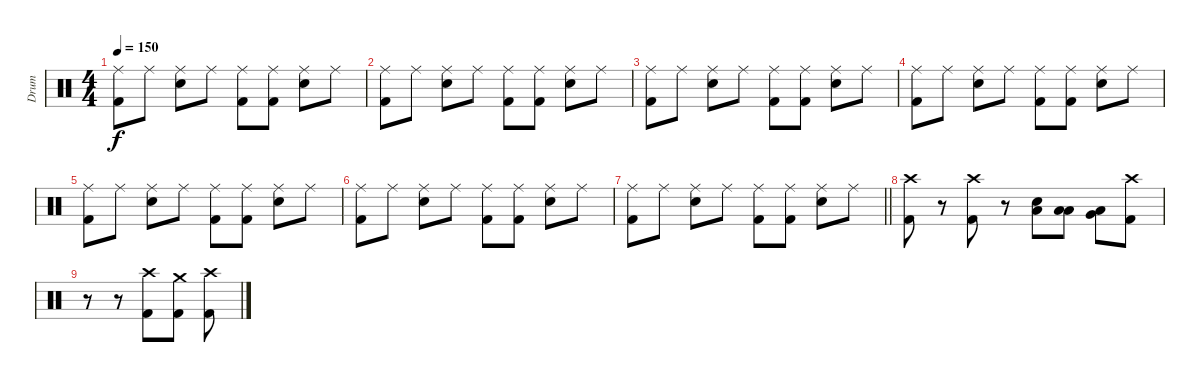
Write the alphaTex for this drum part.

\track ("Drum" "Drum") {instrument percussion}
\staff {score}
\articulation defaults
\ts (4 4)
\tempo 150
\clef neutral
\ks c
("Ride (middle)" "Kick (hit) 2").8{dy f} "Ride (middle)".8 ("Ride (middle)" "Electric Snare (hit)").8 "Ride (middle)".8 ("Ride (middle)" "Kick (hit) 2").8 ("Ride (middle)" "Kick (hit) 2").8 ("Ride (middle)" "Electric Snare (hit)").8 "Ride (middle)".8 |
("Ride (middle)" "Kick (hit) 2").8 "Ride (middle)".8 ("Ride (middle)" "Electric Snare (hit)").8 "Ride (middle)".8 ("Ride (middle)" "Kick (hit) 2").8 ("Ride (middle)" "Kick (hit) 2").8 ("Ride (middle)" "Electric Snare (hit)").8 "Ride (middle)".8 |
("Ride (middle)" "Kick (hit) 2").8 "Ride (middle)".8 ("Ride (middle)" "Electric Snare (hit)").8 "Ride (middle)".8 ("Ride (middle)" "Kick (hit) 2").8 ("Ride (middle)" "Kick (hit) 2").8 ("Ride (middle)" "Electric Snare (hit)").8 "Ride (middle)".8 |
("Ride (middle)" "Kick (hit) 2").8 "Ride (middle)".8 ("Ride (middle)" "Electric Snare (hit)").8 "Ride (middle)".8 ("Ride (middle)" "Kick (hit) 2").8 ("Ride (middle)" "Kick (hit) 2").8 ("Ride (middle)" "Electric Snare (hit)").8 "Ride (middle)".8 |
("Ride (middle)" "Kick (hit) 2").8 "Ride (middle)".8 ("Ride (middle)" "Electric Snare (hit)").8 "Ride (middle)".8 ("Ride (middle)" "Kick (hit) 2").8 ("Ride (middle)" "Kick (hit) 2").8 ("Ride (middle)" "Electric Snare (hit)").8 "Ride (middle)".8 |
("Ride (middle)" "Kick (hit) 2").8 "Ride (middle)".8 ("Ride (middle)" "Electric Snare (hit)").8 "Ride (middle)".8 ("Ride (middle)" "Kick (hit) 2").8 ("Ride (middle)" "Kick (hit) 2").8 ("Ride (middle)" "Electric Snare (hit)").8 "Ride (middle)".8 |
\barLineRight lightlight
("Ride (middle)" "Kick (hit) 2").8 "Ride (middle)".8 ("Ride (middle)" "Electric Snare (hit)").8 "Ride (middle)".8 ("Ride (middle)" "Kick (hit) 2").8 ("Ride (middle)" "Kick (hit) 2").8 ("Ride (middle)" "Electric Snare (hit)").8 "Ride (middle)".8 |
("Kick (hit) 2" "Crash high (hit)").8 r.8 ("Kick (hit) 2" "Crash high (hit)").8 r.8 ("Low Floor Tom (hit)" "Electric Snare (hit)").8 ("Low Floor Tom (hit)" "Low Tom (hit)").8 ("Low Floor Tom (hit)" "Very Low Tom (hit)").8 ("Kick (hit) 2" "Crash high (hit)").8 |
r.8 r.8 ("Crash high (hit)" "Kick (hit) 2").8 ("Crash medium (hit)" "Kick (hit) 2").8 ("Crash high (hit)" "Kick (hit) 2").8
